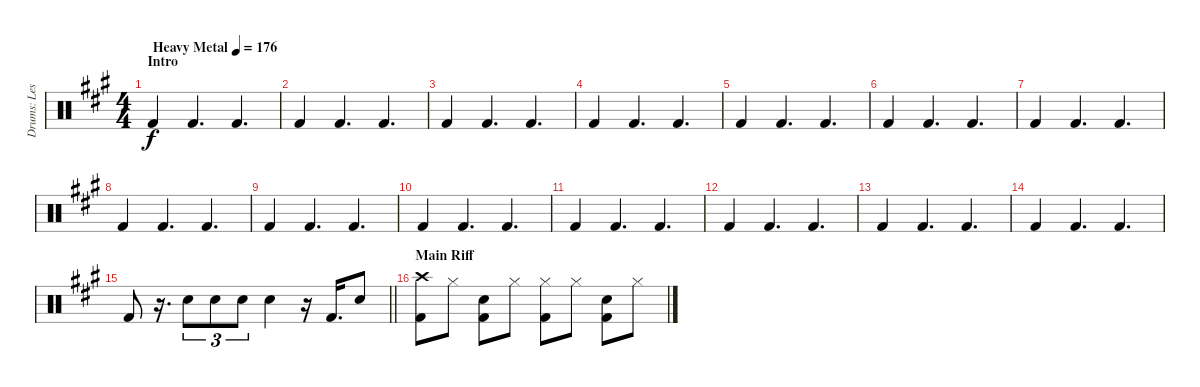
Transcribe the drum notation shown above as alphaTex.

\track ("Drums: Les" "Drums: Les") {instrument percussion}
\staff {score}
\articulation defaults
\ts (4 4)
\section ("" "Intro")
\tempo (176 "Heavy Metal")
\clef neutral
\ks a "Kick (hit) 2".4{dy f volume 0} "Kick (hit) 2".4{d} "Kick (hit) 2".4{d}
|
"Kick (hit) 2".4 "Kick (hit) 2".4{d} "Kick (hit) 2".4{d} |
"Kick (hit) 2".4 "Kick (hit) 2".4{d} "Kick (hit) 2".4{d} |
"Kick (hit) 2".4 "Kick (hit) 2".4{d} "Kick (hit) 2".4{d} |
"Kick (hit) 2".4 "Kick (hit) 2".4{d} "Kick (hit) 2".4{d} |
"Kick (hit) 2".4{volume 0} "Kick (hit) 2".4{d volume 16} "Kick (hit) 2".4{d} |
"Kick (hit) 2".4 "Kick (hit) 2".4{d} "Kick (hit) 2".4{d} |
"Kick (hit) 2".4 "Kick (hit) 2".4{d} "Kick (hit) 2".4{d} |
"Kick (hit) 2".4 "Kick (hit) 2".4{d} "Kick (hit) 2".4{d} |
"Kick (hit) 2".4 "Kick (hit) 2".4{d} "Kick (hit) 2".4{d} |
"Kick (hit) 2".4 "Kick (hit) 2".4{d} "Kick (hit) 2".4{d} |
"Kick (hit) 2".4 "Kick (hit) 2".4{d} "Kick (hit) 2".4{d} |
"Kick (hit) 2".4 "Kick (hit) 2".4{d} "Kick (hit) 2".4{d} |
"Kick (hit) 2".4 "Kick (hit) 2".4{d} "Kick (hit) 2".4{d} |
\barLineRight lightlight "Kick (hit) 2".8
r.16{d} "Electric Snare (hit)".8{tu (3 2)} "Electric Snare (hit)".8{tu (3 2)} "Electric Snare (hit)".8{tu (3 2)} "Electric Snare (hit)".4 r.16 "Kick (hit) 2".16{d} "Electric Snare (hit)".8 |
\section ("" "Main Riff")
("Crash high (hit)" "Kick (hit) 2").8 "Hi-Hat (closed)".8 ("Snare (hit) 2" "Kick (hit) 2").8 "Hi-Hat (closed)".8 ("Hi-Hat (closed)" "Kick (hit) 2").8 "Hi-Hat (closed)".8 ("Snare (hit) 2" "Kick (hit) 2").8 "Hi-Hat (closed)".8
